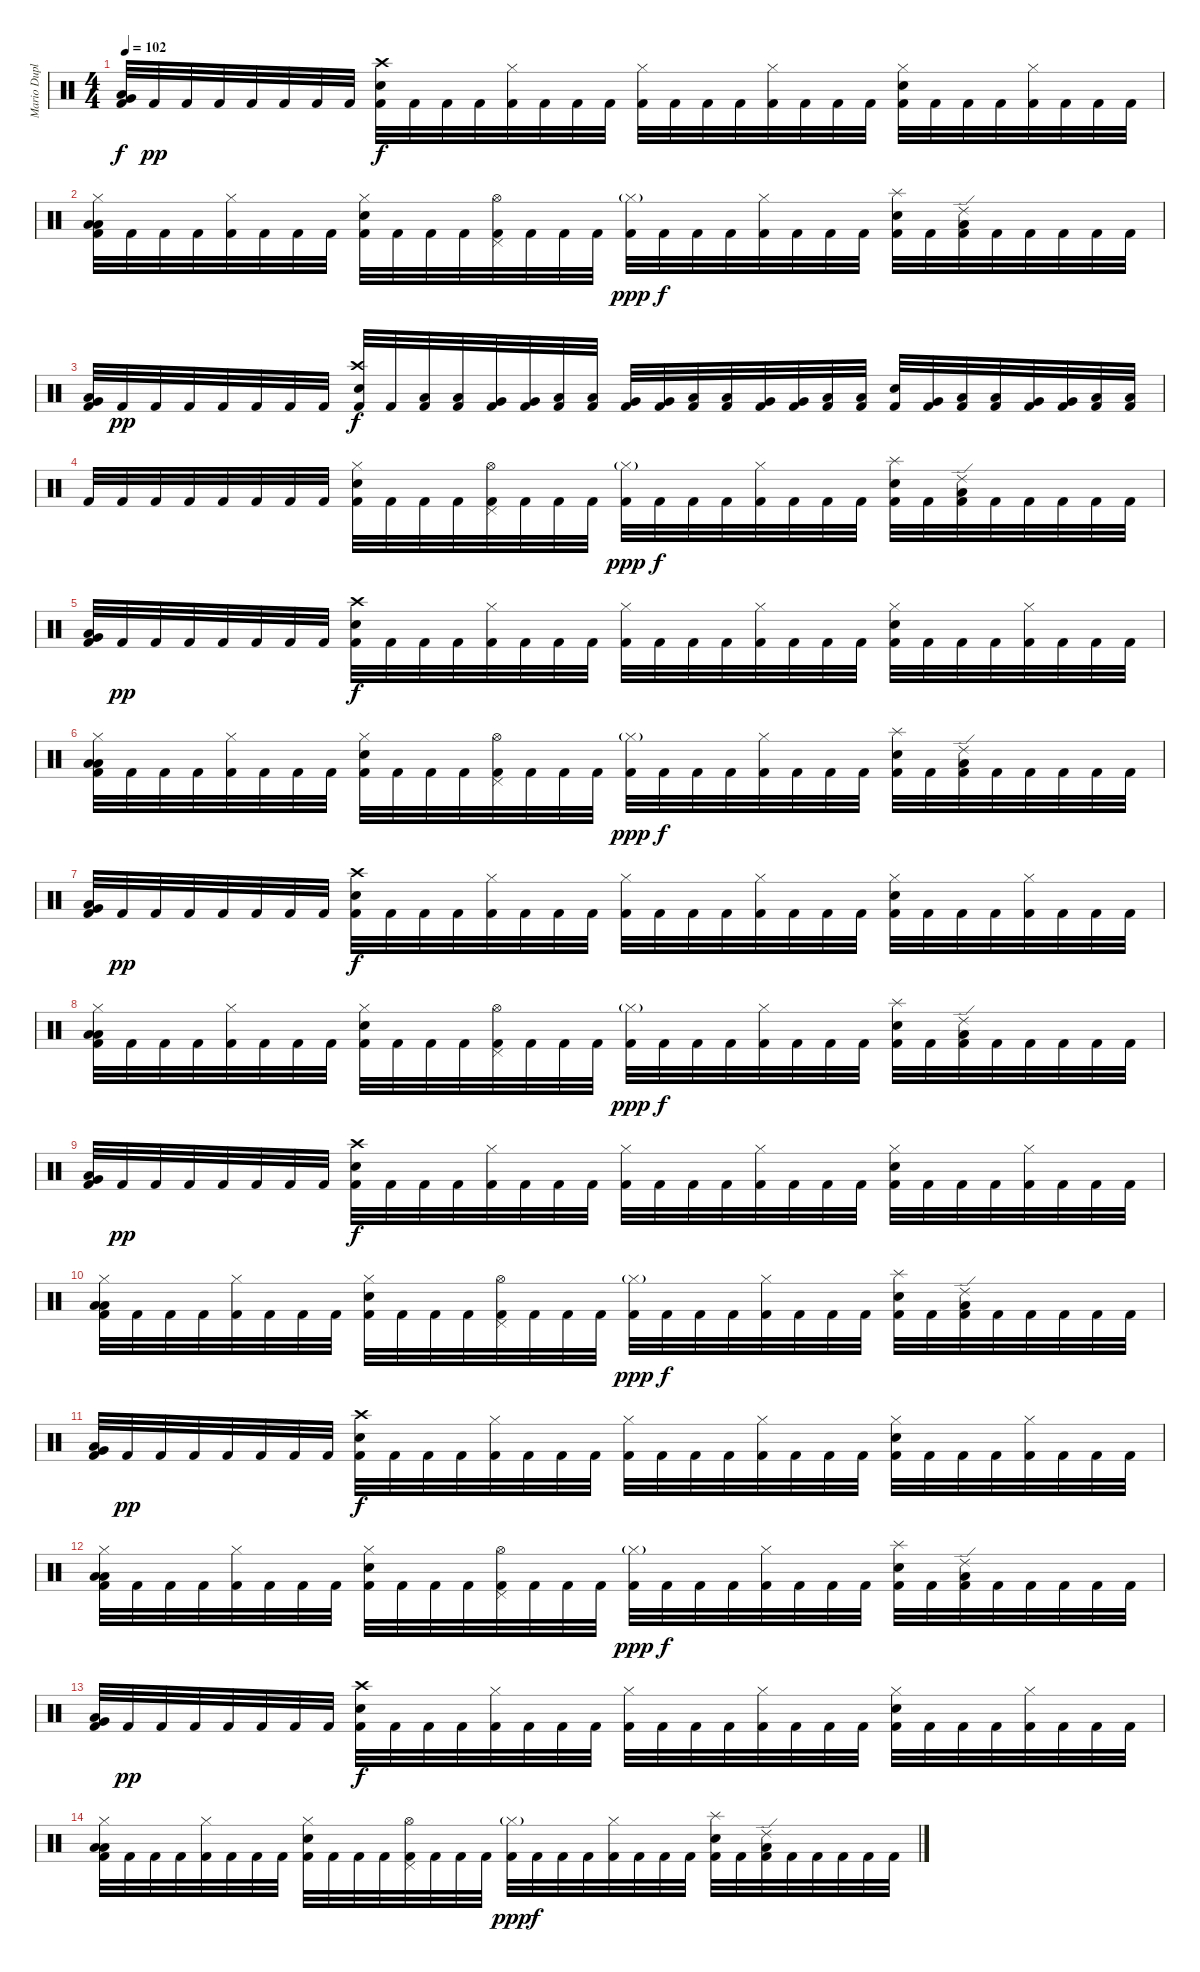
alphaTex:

\track ("Mario Duplantier" "Mario Dupl") {instrument percussion}
\staff {score}
\articulation defaults
\ts (4 4)
\tempo 102
\clef neutral
\ks c
("Low Floor Tom (hit)" "Very Low Tom (hit)" "Kick (hit) 2").32{dy f} "Kick (hit) 2".32{dy pp} "Kick (hit) 2".32 "Kick (hit) 2".32 "Kick (hit) 2".32 "Kick (hit) 2".32 "Kick (hit) 2".32 "Kick (hit) 2".32 ("Crash high (hit)" "Snare (hit) 2" "Kick (hit) 2").32{dy f} "Kick (hit) 2".32 "Kick (hit) 2".32 "Kick (hit) 2".32 ("Hi-Hat (closed)" "Kick (hit) 2").32 "Kick (hit) 2".32 "Kick (hit) 2".32 "Kick (hit) 2".32 ("Hi-Hat (closed)" "Kick (hit) 2").32 "Kick (hit) 2".32 "Kick (hit) 2".32 "Kick (hit) 2".32 ("Hi-Hat (closed)" "Kick (hit) 2").32 "Kick (hit) 2".32 "Kick (hit) 2".32 "Kick (hit) 2".32 ("Hi-Hat (closed)" "Snare (hit) 2" "Kick (hit) 2").32 "Kick (hit) 2".32 "Kick (hit) 2".32 "Kick (hit) 2".32 ("Hi-Hat (closed)" "Kick (hit) 2").32 "Kick (hit) 2".32 "Kick (hit) 2".32 "Kick (hit) 2".32 |
("Hi-Hat (closed)" "Low Floor Tom (hit)" "Low Floor Tom (hit)" "Kick (hit) 2").32 "Kick (hit) 2".32 "Kick (hit) 2".32 "Kick (hit) 2".32 ("Hi-Hat (closed)" "Kick (hit) 2").32 "Kick (hit) 2".32 "Kick (hit) 2".32 "Kick (hit) 2".32 ("Hi-Hat (closed)" "Snare (hit) 2" "Kick (hit) 2").32 "Kick (hit) 2".32 "Kick (hit) 2".32 "Kick (hit) 2".32 ("Hi-Hat (open)" "Pedal Hi-Hat (hit)" "Kick (hit) 2").32 "Kick (hit) 2".32 "Kick (hit) 2".32 "Kick (hit) 2".32 ("Hi-Hat (closed)"{g} "Kick (hit) 2").32{dy ppp} "Kick (hit) 2".32{dy f} "Kick (hit) 2".32 "Kick (hit) 2".32 ("Hi-Hat (closed)" "Kick (hit) 2").32 "Kick (hit) 2".32 "Kick (hit) 2".32 "Kick (hit) 2".32 ("Splash (hit)" "Snare (hit) 2" "Kick (hit) 2").32 "Kick (hit) 2".32 ("Ride (edge) 2" "Low Floor Tom (hit)" "Kick (hit) 2").32 "Kick (hit) 2".32 "Kick (hit) 2".32 "Kick (hit) 2".32 "Kick (hit) 2".32 "Kick (hit) 2".32 |
("Low Floor Tom (hit)" "Very Low Tom (hit)" "Kick (hit) 2").32 "Kick (hit) 2".32{dy pp} "Kick (hit) 2".32 "Kick (hit) 2".32 "Kick (hit) 2".32 "Kick (hit) 2".32 "Kick (hit) 2".32 "Kick (hit) 2".32 ("Crash high (hit)" "Snare (hit) 2" "Kick (hit) 2").32{dy f} "Kick (hit) 2".32 ("Low Tom (hit)" "Kick (hit) 2").32 ("Low Tom (hit)" "Kick (hit) 2").32 ("Very Low Tom (hit)" "Kick (hit) 2").32 ("Very Low Tom (hit)" "Kick (hit) 2").32 ("Low Tom (hit)" "Kick (hit) 2").32 ("Low Tom (hit)" "Kick (hit) 2").32 ("Very Low Tom (hit)" "Kick (hit) 2").32 ("Very Low Tom (hit)" "Kick (hit) 2").32 ("Low Tom (hit)" "Kick (hit) 2").32 ("Low Tom (hit)" "Kick (hit) 2").32 ("Very Low Tom (hit)" "Kick (hit) 2").32 ("Very Low Tom (hit)" "Kick (hit) 2").32 ("Low Tom (hit)" "Kick (hit) 2").32 ("Low Tom (hit)" "Kick (hit) 2").32 ("Snare (hit) 2" "Kick (hit) 2").32 ("Very Low Tom (hit)" "Kick (hit) 2").32 ("Low Tom (hit)" "Kick (hit) 2").32 ("Low Tom (hit)" "Kick (hit) 2").32 ("Very Low Tom (hit)" "Kick (hit) 2").32 ("Very Low Tom (hit)" "Kick (hit) 2").32 ("Low Tom (hit)" "Kick (hit) 2").32 ("Low Tom (hit)" "Kick (hit) 2").32 |
"Kick (hit) 2".32 "Kick (hit) 2".32 "Kick (hit) 2".32 "Kick (hit) 2".32 "Kick (hit) 2".32 "Kick (hit) 2".32 "Kick (hit) 2".32 "Kick (hit) 2".32 ("Hi-Hat (closed)" "Snare (hit) 2" "Kick (hit) 2").32 "Kick (hit) 2".32 "Kick (hit) 2".32 "Kick (hit) 2".32 ("Hi-Hat (open)" "Pedal Hi-Hat (hit)" "Kick (hit) 2").32 "Kick (hit) 2".32 "Kick (hit) 2".32 "Kick (hit) 2".32 ("Hi-Hat (closed)"{g} "Kick (hit) 2").32{dy ppp} "Kick (hit) 2".32{dy f} "Kick (hit) 2".32 "Kick (hit) 2".32 ("Hi-Hat (closed)" "Kick (hit) 2").32 "Kick (hit) 2".32 "Kick (hit) 2".32 "Kick (hit) 2".32 ("Splash (hit)" "Snare (hit) 2" "Kick (hit) 2").32 "Kick (hit) 2".32 ("Ride (edge) 2" "Low Floor Tom (hit)" "Kick (hit) 2").32 "Kick (hit) 2".32 "Kick (hit) 2".32 "Kick (hit) 2".32 "Kick (hit) 2".32 "Kick (hit) 2".32 |
("Low Floor Tom (hit)" "Very Low Tom (hit)" "Kick (hit) 2").32 "Kick (hit) 2".32{dy pp} "Kick (hit) 2".32 "Kick (hit) 2".32 "Kick (hit) 2".32 "Kick (hit) 2".32 "Kick (hit) 2".32 "Kick (hit) 2".32 ("Crash high (hit)" "Snare (hit) 2" "Kick (hit) 2").32{dy f} "Kick (hit) 2".32 "Kick (hit) 2".32 "Kick (hit) 2".32 ("Hi-Hat (closed)" "Kick (hit) 2").32 "Kick (hit) 2".32 "Kick (hit) 2".32 "Kick (hit) 2".32 ("Hi-Hat (closed)" "Kick (hit) 2").32 "Kick (hit) 2".32 "Kick (hit) 2".32 "Kick (hit) 2".32 ("Hi-Hat (closed)" "Kick (hit) 2").32 "Kick (hit) 2".32 "Kick (hit) 2".32 "Kick (hit) 2".32 ("Hi-Hat (closed)" "Snare (hit) 2" "Kick (hit) 2").32 "Kick (hit) 2".32 "Kick (hit) 2".32 "Kick (hit) 2".32 ("Hi-Hat (closed)" "Kick (hit) 2").32 "Kick (hit) 2".32 "Kick (hit) 2".32 "Kick (hit) 2".32 |
("Hi-Hat (closed)" "Low Floor Tom (hit)" "Low Floor Tom (hit)" "Kick (hit) 2").32 "Kick (hit) 2".32 "Kick (hit) 2".32 "Kick (hit) 2".32 ("Hi-Hat (closed)" "Kick (hit) 2").32 "Kick (hit) 2".32 "Kick (hit) 2".32 "Kick (hit) 2".32 ("Hi-Hat (closed)" "Snare (hit) 2" "Kick (hit) 2").32 "Kick (hit) 2".32 "Kick (hit) 2".32 "Kick (hit) 2".32 ("Hi-Hat (open)" "Pedal Hi-Hat (hit)" "Kick (hit) 2").32 "Kick (hit) 2".32 "Kick (hit) 2".32 "Kick (hit) 2".32 ("Hi-Hat (closed)"{g} "Kick (hit) 2").32{dy ppp} "Kick (hit) 2".32{dy f} "Kick (hit) 2".32 "Kick (hit) 2".32 ("Hi-Hat (closed)" "Kick (hit) 2").32 "Kick (hit) 2".32 "Kick (hit) 2".32 "Kick (hit) 2".32 ("Splash (hit)" "Snare (hit) 2" "Kick (hit) 2").32 "Kick (hit) 2".32 ("Ride (edge) 2" "Low Floor Tom (hit)" "Kick (hit) 2").32 "Kick (hit) 2".32 "Kick (hit) 2".32 "Kick (hit) 2".32 "Kick (hit) 2".32 "Kick (hit) 2".32 |
("Low Floor Tom (hit)" "Very Low Tom (hit)" "Kick (hit) 2").32 "Kick (hit) 2".32{dy pp} "Kick (hit) 2".32 "Kick (hit) 2".32 "Kick (hit) 2".32 "Kick (hit) 2".32 "Kick (hit) 2".32 "Kick (hit) 2".32 ("Crash high (hit)" "Snare (hit) 2" "Kick (hit) 2").32{dy f} "Kick (hit) 2".32 "Kick (hit) 2".32 "Kick (hit) 2".32 ("Hi-Hat (closed)" "Kick (hit) 2").32 "Kick (hit) 2".32 "Kick (hit) 2".32 "Kick (hit) 2".32 ("Hi-Hat (closed)" "Kick (hit) 2").32 "Kick (hit) 2".32 "Kick (hit) 2".32 "Kick (hit) 2".32 ("Hi-Hat (closed)" "Kick (hit) 2").32 "Kick (hit) 2".32 "Kick (hit) 2".32 "Kick (hit) 2".32 ("Hi-Hat (closed)" "Snare (hit) 2" "Kick (hit) 2").32 "Kick (hit) 2".32 "Kick (hit) 2".32 "Kick (hit) 2".32 ("Hi-Hat (closed)" "Kick (hit) 2").32 "Kick (hit) 2".32 "Kick (hit) 2".32 "Kick (hit) 2".32 |
("Hi-Hat (closed)" "Low Floor Tom (hit)" "Low Floor Tom (hit)" "Kick (hit) 2").32 "Kick (hit) 2".32 "Kick (hit) 2".32 "Kick (hit) 2".32 ("Hi-Hat (closed)" "Kick (hit) 2").32 "Kick (hit) 2".32 "Kick (hit) 2".32 "Kick (hit) 2".32 ("Hi-Hat (closed)" "Snare (hit) 2" "Kick (hit) 2").32 "Kick (hit) 2".32 "Kick (hit) 2".32 "Kick (hit) 2".32 ("Hi-Hat (open)" "Pedal Hi-Hat (hit)" "Kick (hit) 2").32 "Kick (hit) 2".32 "Kick (hit) 2".32 "Kick (hit) 2".32 ("Hi-Hat (closed)"{g} "Kick (hit) 2").32{dy ppp} "Kick (hit) 2".32{dy f} "Kick (hit) 2".32 "Kick (hit) 2".32 ("Hi-Hat (closed)" "Kick (hit) 2").32 "Kick (hit) 2".32 "Kick (hit) 2".32 "Kick (hit) 2".32 ("Splash (hit)" "Snare (hit) 2" "Kick (hit) 2").32 "Kick (hit) 2".32 ("Ride (edge) 2" "Low Floor Tom (hit)" "Kick (hit) 2").32 "Kick (hit) 2".32 "Kick (hit) 2".32 "Kick (hit) 2".32 "Kick (hit) 2".32 "Kick (hit) 2".32 |
("Low Floor Tom (hit)" "Very Low Tom (hit)" "Kick (hit) 2").32 "Kick (hit) 2".32{dy pp} "Kick (hit) 2".32 "Kick (hit) 2".32 "Kick (hit) 2".32 "Kick (hit) 2".32 "Kick (hit) 2".32 "Kick (hit) 2".32 ("Crash high (hit)" "Snare (hit) 2" "Kick (hit) 2").32{dy f} "Kick (hit) 2".32 "Kick (hit) 2".32 "Kick (hit) 2".32 ("Hi-Hat (closed)" "Kick (hit) 2").32 "Kick (hit) 2".32 "Kick (hit) 2".32 "Kick (hit) 2".32 ("Hi-Hat (closed)" "Kick (hit) 2").32 "Kick (hit) 2".32 "Kick (hit) 2".32 "Kick (hit) 2".32 ("Hi-Hat (closed)" "Kick (hit) 2").32 "Kick (hit) 2".32 "Kick (hit) 2".32 "Kick (hit) 2".32 ("Hi-Hat (closed)" "Snare (hit) 2" "Kick (hit) 2").32 "Kick (hit) 2".32 "Kick (hit) 2".32 "Kick (hit) 2".32 ("Hi-Hat (closed)" "Kick (hit) 2").32 "Kick (hit) 2".32 "Kick (hit) 2".32 "Kick (hit) 2".32 |
("Hi-Hat (closed)" "Low Floor Tom (hit)" "Low Floor Tom (hit)" "Kick (hit) 2").32 "Kick (hit) 2".32 "Kick (hit) 2".32 "Kick (hit) 2".32 ("Hi-Hat (closed)" "Kick (hit) 2").32 "Kick (hit) 2".32 "Kick (hit) 2".32 "Kick (hit) 2".32 ("Hi-Hat (closed)" "Snare (hit) 2" "Kick (hit) 2").32 "Kick (hit) 2".32 "Kick (hit) 2".32 "Kick (hit) 2".32 ("Hi-Hat (open)" "Pedal Hi-Hat (hit)" "Kick (hit) 2").32 "Kick (hit) 2".32 "Kick (hit) 2".32 "Kick (hit) 2".32 ("Hi-Hat (closed)"{g} "Kick (hit) 2").32{dy ppp} "Kick (hit) 2".32{dy f} "Kick (hit) 2".32 "Kick (hit) 2".32 ("Hi-Hat (closed)" "Kick (hit) 2").32 "Kick (hit) 2".32 "Kick (hit) 2".32 "Kick (hit) 2".32 ("Splash (hit)" "Snare (hit) 2" "Kick (hit) 2").32 "Kick (hit) 2".32 ("Ride (edge) 2" "Low Floor Tom (hit)" "Kick (hit) 2").32 "Kick (hit) 2".32 "Kick (hit) 2".32 "Kick (hit) 2".32 "Kick (hit) 2".32 "Kick (hit) 2".32 |
("Low Floor Tom (hit)" "Very Low Tom (hit)" "Kick (hit) 2").32 "Kick (hit) 2".32{dy pp} "Kick (hit) 2".32 "Kick (hit) 2".32 "Kick (hit) 2".32 "Kick (hit) 2".32 "Kick (hit) 2".32 "Kick (hit) 2".32 ("Crash high (hit)" "Snare (hit) 2" "Kick (hit) 2").32{dy f} "Kick (hit) 2".32 "Kick (hit) 2".32 "Kick (hit) 2".32 ("Hi-Hat (closed)" "Kick (hit) 2").32 "Kick (hit) 2".32 "Kick (hit) 2".32 "Kick (hit) 2".32 ("Hi-Hat (closed)" "Kick (hit) 2").32 "Kick (hit) 2".32 "Kick (hit) 2".32 "Kick (hit) 2".32 ("Hi-Hat (closed)" "Kick (hit) 2").32 "Kick (hit) 2".32 "Kick (hit) 2".32 "Kick (hit) 2".32 ("Hi-Hat (closed)" "Snare (hit) 2" "Kick (hit) 2").32 "Kick (hit) 2".32 "Kick (hit) 2".32 "Kick (hit) 2".32 ("Hi-Hat (closed)" "Kick (hit) 2").32 "Kick (hit) 2".32 "Kick (hit) 2".32 "Kick (hit) 2".32 |
("Hi-Hat (closed)" "Low Floor Tom (hit)" "Low Floor Tom (hit)" "Kick (hit) 2").32 "Kick (hit) 2".32 "Kick (hit) 2".32 "Kick (hit) 2".32 ("Hi-Hat (closed)" "Kick (hit) 2").32 "Kick (hit) 2".32 "Kick (hit) 2".32 "Kick (hit) 2".32 ("Hi-Hat (closed)" "Snare (hit) 2" "Kick (hit) 2").32 "Kick (hit) 2".32 "Kick (hit) 2".32 "Kick (hit) 2".32 ("Hi-Hat (open)" "Pedal Hi-Hat (hit)" "Kick (hit) 2").32 "Kick (hit) 2".32 "Kick (hit) 2".32 "Kick (hit) 2".32 ("Hi-Hat (closed)"{g} "Kick (hit) 2").32{dy ppp} "Kick (hit) 2".32{dy f} "Kick (hit) 2".32 "Kick (hit) 2".32 ("Hi-Hat (closed)" "Kick (hit) 2").32 "Kick (hit) 2".32 "Kick (hit) 2".32 "Kick (hit) 2".32 ("Splash (hit)" "Snare (hit) 2" "Kick (hit) 2").32 "Kick (hit) 2".32 ("Ride (edge) 2" "Low Floor Tom (hit)" "Kick (hit) 2").32 "Kick (hit) 2".32 "Kick (hit) 2".32 "Kick (hit) 2".32 "Kick (hit) 2".32 "Kick (hit) 2".32 |
("Low Floor Tom (hit)" "Very Low Tom (hit)" "Kick (hit) 2").32 "Kick (hit) 2".32{dy pp} "Kick (hit) 2".32 "Kick (hit) 2".32 "Kick (hit) 2".32 "Kick (hit) 2".32 "Kick (hit) 2".32 "Kick (hit) 2".32 ("Crash high (hit)" "Snare (hit) 2" "Kick (hit) 2").32{dy f} "Kick (hit) 2".32 "Kick (hit) 2".32 "Kick (hit) 2".32 ("Hi-Hat (closed)" "Kick (hit) 2").32 "Kick (hit) 2".32 "Kick (hit) 2".32 "Kick (hit) 2".32 ("Hi-Hat (closed)" "Kick (hit) 2").32 "Kick (hit) 2".32 "Kick (hit) 2".32 "Kick (hit) 2".32 ("Hi-Hat (closed)" "Kick (hit) 2").32 "Kick (hit) 2".32 "Kick (hit) 2".32 "Kick (hit) 2".32 ("Hi-Hat (closed)" "Snare (hit) 2" "Kick (hit) 2").32 "Kick (hit) 2".32 "Kick (hit) 2".32 "Kick (hit) 2".32 ("Hi-Hat (closed)" "Kick (hit) 2").32 "Kick (hit) 2".32 "Kick (hit) 2".32 "Kick (hit) 2".32 |
("Hi-Hat (closed)" "Low Floor Tom (hit)" "Low Floor Tom (hit)" "Kick (hit) 2").32 "Kick (hit) 2".32 "Kick (hit) 2".32 "Kick (hit) 2".32 ("Hi-Hat (closed)" "Kick (hit) 2").32 "Kick (hit) 2".32 "Kick (hit) 2".32 "Kick (hit) 2".32 ("Hi-Hat (closed)" "Snare (hit) 2" "Kick (hit) 2").32 "Kick (hit) 2".32 "Kick (hit) 2".32 "Kick (hit) 2".32 ("Hi-Hat (open)" "Pedal Hi-Hat (hit)" "Kick (hit) 2").32 "Kick (hit) 2".32 "Kick (hit) 2".32 "Kick (hit) 2".32 ("Hi-Hat (closed)"{g} "Kick (hit) 2").32{dy ppp} "Kick (hit) 2".32{dy f} "Kick (hit) 2".32 "Kick (hit) 2".32 ("Hi-Hat (closed)" "Kick (hit) 2").32 "Kick (hit) 2".32 "Kick (hit) 2".32 "Kick (hit) 2".32 ("Splash (hit)" "Snare (hit) 2" "Kick (hit) 2").32 "Kick (hit) 2".32 ("Ride (edge) 2" "Low Floor Tom (hit)" "Kick (hit) 2").32 "Kick (hit) 2".32 "Kick (hit) 2".32 "Kick (hit) 2".32 "Kick (hit) 2".32 "Kick (hit) 2".32
